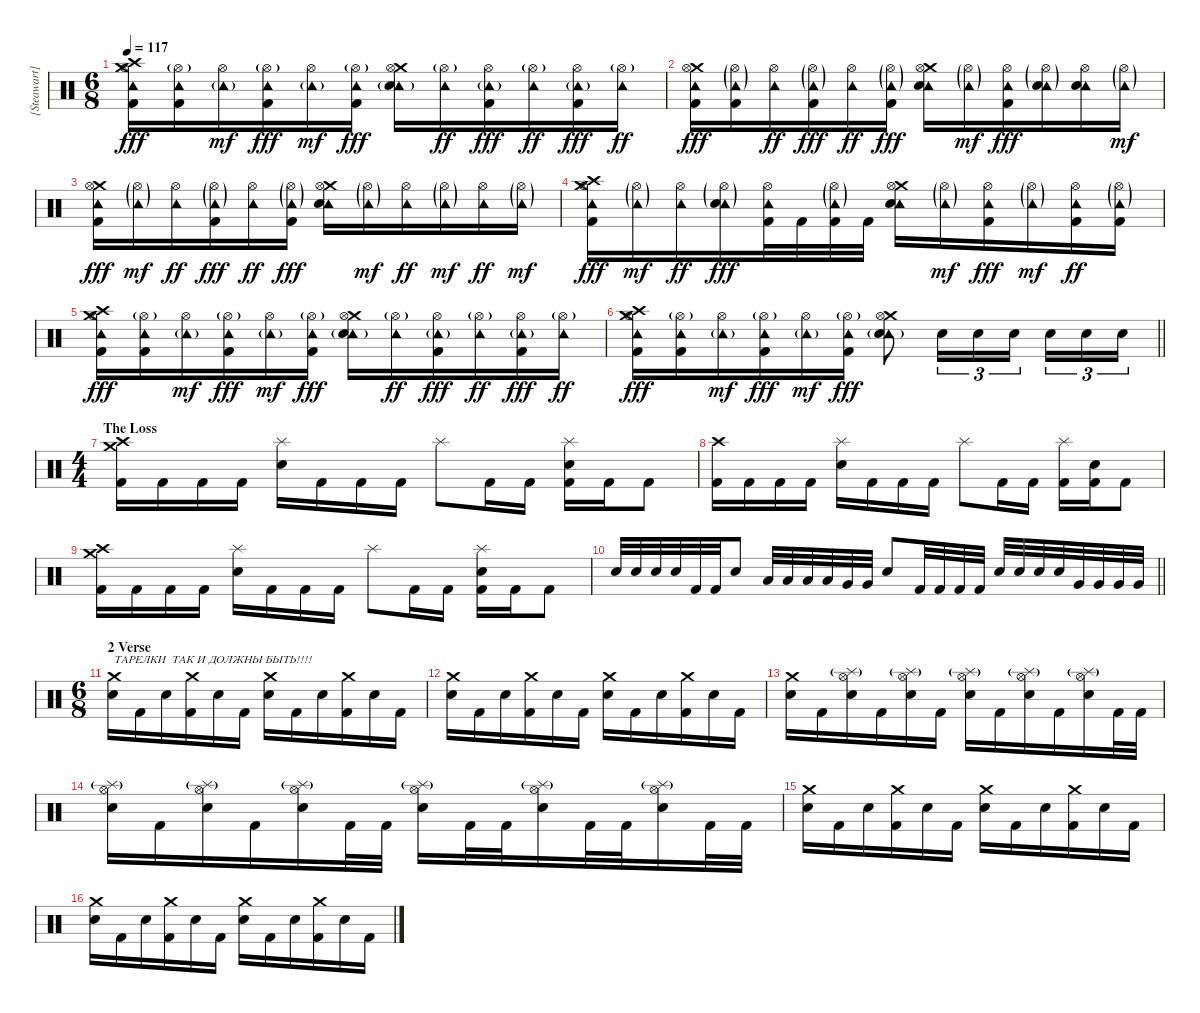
\track ("[Steawart] Drums" "[Steawart]") {instrument percussion}
\staff {score}
\articulation defaults
\ts (6 8)
\tempo 117
\clef neutral
\ks c
("Crash medium (hit)" "Hi-Hat (open)" "Crash high (hit)" "Tambourine (hit)" "Kick (hit) 2").16{dy fff} ("Hi-Hat (open)"{g} "Tambourine (hit)" "Kick (hit) 2").16 ("Hi-Hat (open)" "Tambourine (hit)"{g}).16{dy mf} ("Hi-Hat (open)"{g} "Tambourine (hit)" "Kick (hit) 2").16{dy fff} ("Hi-Hat (open)" "Tambourine (hit)"{g}).16{dy mf} ("Hi-Hat (open)"{g} "Tambourine (hit)" "Kick (hit) 2").16{dy fff} ("Crash medium (hit)" "Hi-Hat (open)" "Tambourine (hit)"{g} "Electric Snare (hit)").16 ("Hi-Hat (open)"{g} "Tambourine (hit)").16{dy ff} ("Hi-Hat (open)" "Tambourine (hit)"{g} "Kick (hit) 2").16{dy fff} ("Hi-Hat (open)"{g} "Tambourine (hit)").16{dy ff} ("Hi-Hat (open)" "Tambourine (hit)"{g} "Kick (hit) 2").16{dy fff} ("Hi-Hat (open)"{g} "Tambourine (hit)").16{dy ff} |
("Crash medium (hit)" "Hi-Hat (open)" "Tambourine (hit)" "Kick (hit) 2").16{dy fff} ("Hi-Hat (open)"{g} "Tambourine (hit)"{g} "Kick (hit) 2").16 ("Hi-Hat (open)" "Tambourine (hit)").16{dy ff} ("Hi-Hat (open)"{g} "Tambourine (hit)"{g} "Kick (hit) 2").16{dy fff} ("Hi-Hat (open)" "Tambourine (hit)").16{dy ff} ("Hi-Hat (open)"{g} "Tambourine (hit)"{g} "Kick (hit) 2").16{dy fff} ("Crash medium (hit)" "Hi-Hat (open)" "Tambourine (hit)" "Electric Snare (hit)").16 ("Hi-Hat (open)"{g} "Tambourine (hit)"{g}).16{dy mf} ("Hi-Hat (open)" "Tambourine (hit)" "Kick (hit) 2").16{dy fff} ("Hi-Hat (open)"{g} "Tambourine (hit)"{g} "Electric Snare (hit)").16 ("Hi-Hat (open)" "Tambourine (hit)" "Electric Snare (hit)").16 ("Hi-Hat (open)"{g} "Tambourine (hit)"{g}).16{dy mf} |
("Crash medium (hit)" "Hi-Hat (open)" "Tambourine (hit)" "Kick (hit) 2").16{dy fff} ("Hi-Hat (open)"{g} "Tambourine (hit)"{g}).16{dy mf} ("Hi-Hat (open)" "Tambourine (hit)").16{dy ff} ("Hi-Hat (open)"{g} "Tambourine (hit)"{g} "Kick (hit) 2").16{dy fff} ("Hi-Hat (open)" "Tambourine (hit)").16{dy ff} ("Hi-Hat (open)"{g} "Tambourine (hit)"{g} "Kick (hit) 2").16{dy fff} ("Crash medium (hit)" "Hi-Hat (open)" "Tambourine (hit)" "Electric Snare (hit)").16 ("Hi-Hat (open)"{g} "Tambourine (hit)"{g}).16{dy mf} ("Hi-Hat (open)" "Tambourine (hit)").16{dy ff} ("Hi-Hat (open)"{g} "Tambourine (hit)"{g}).16{dy mf} ("Hi-Hat (open)" "Tambourine (hit)").16{dy ff} ("Hi-Hat (open)"{g} "Tambourine (hit)"{g}).16{dy mf} |
("Crash medium (hit)" "Hi-Hat (open)" "Crash high (hit)" "Tambourine (hit)" "Kick (hit) 2").16{dy fff} ("Hi-Hat (open)"{g} "Tambourine (hit)"{g}).16{dy mf} ("Hi-Hat (open)" "Tambourine (hit)").16{dy ff} ("Hi-Hat (open)"{g} "Tambourine (hit)"{g} "Electric Snare (hit)").16{dy fff} ("Hi-Hat (open)" "Tambourine (hit)" "Kick (hit) 2").32 "Kick (hit) 2".32 ("Hi-Hat (open)"{g} "Tambourine (hit)"{g} "Kick (hit) 2").32 "Kick (hit) 2".32 ("Crash medium (hit)" "Hi-Hat (open)" "Tambourine (hit)" "Electric Snare (hit)").16 ("Hi-Hat (open)"{g} "Tambourine (hit)"{g}).16{dy mf} ("Hi-Hat (open)" "Tambourine (hit)" "Kick (hit) 2").16{dy fff} ("Hi-Hat (open)"{g} "Tambourine (hit)"{g}).16{dy mf} ("Hi-Hat (open)" "Tambourine (hit)" "Kick (hit) 2").16{dy ff} ("Hi-Hat (open)"{g} "Tambourine (hit)"{g} "Kick (hit) 2").16 |
("Crash medium (hit)" "Hi-Hat (open)" "Crash high (hit)" "Tambourine (hit)" "Kick (hit) 2").16{dy fff} ("Hi-Hat (open)"{g} "Tambourine (hit)" "Kick (hit) 2").16 ("Hi-Hat (open)" "Tambourine (hit)"{g}).16{dy mf} ("Hi-Hat (open)"{g} "Tambourine (hit)" "Kick (hit) 2").16{dy fff} ("Hi-Hat (open)" "Tambourine (hit)"{g}).16{dy mf} ("Hi-Hat (open)"{g} "Tambourine (hit)" "Kick (hit) 2").16{dy fff} ("Crash medium (hit)" "Hi-Hat (open)" "Tambourine (hit)"{g} "Electric Snare (hit)").16 ("Hi-Hat (open)"{g} "Tambourine (hit)").16{dy ff} ("Hi-Hat (open)" "Tambourine (hit)"{g} "Kick (hit) 2").16{dy fff} ("Hi-Hat (open)"{g} "Tambourine (hit)").16{dy ff} ("Hi-Hat (open)" "Tambourine (hit)"{g} "Kick (hit) 2").16{dy fff} ("Hi-Hat (open)"{g} "Tambourine (hit)").16{dy ff} |
\barLineRight lightlight
("Crash medium (hit)" "Hi-Hat (open)" "Crash high (hit)" "Tambourine (hit)" "Kick (hit) 2").16{dy fff} ("Hi-Hat (open)"{g} "Tambourine (hit)" "Kick (hit) 2").16 ("Hi-Hat (open)" "Tambourine (hit)"{g}).16{dy mf} ("Hi-Hat (open)"{g} "Tambourine (hit)" "Kick (hit) 2").16{dy fff} ("Hi-Hat (open)" "Tambourine (hit)"{g}).16{dy mf} ("Hi-Hat (open)"{g} "Tambourine (hit)" "Kick (hit) 2").16{dy fff} ("Crash medium (hit)" "Hi-Hat (open)" "Tambourine (hit)"{g} "Electric Snare (hit)").8 "Electric Snare (hit)".16{tu (3 2)} "Electric Snare (hit)".16{tu (3 2)} "Electric Snare (hit)".16{tu (3 2) beam splitsecondary} "Electric Snare (hit)".16{tu (3 2)} "Electric Snare (hit)".16{tu (3 2)} "Electric Snare (hit)".16{tu (3 2)} |
\ts (4 4)
\section ("" "The Loss")
("Crash medium (hit)" "Crash high (hit)" "Kick (hit) 2").16 "Kick (hit) 2".16 "Kick (hit) 2".16 "Kick (hit) 2".16 ("Splash (hit)" "Electric Snare (hit)").16 "Kick (hit) 2".16 "Kick (hit) 2".16 "Kick (hit) 2".16 "Splash (hit)".8 "Kick (hit) 2".16 "Kick (hit) 2".16 ("Splash (hit)" "Electric Snare (hit)" "Kick (hit) 2").16 "Kick (hit) 2".16 "Kick (hit) 2".8 |
("Crash high (hit)" "Kick (hit) 2").16 "Kick (hit) 2".16 "Kick (hit) 2".16 "Kick (hit) 2".16 ("Splash (hit)" "Electric Snare (hit)").16 "Kick (hit) 2".16 "Kick (hit) 2".16 "Kick (hit) 2".16 "Splash (hit)".8 "Kick (hit) 2".16 "Kick (hit) 2".16 ("Splash (hit)" "Kick (hit) 2").16 ("Electric Snare (hit)" "Kick (hit) 2").16 "Kick (hit) 2".8 |
("Crash medium (hit)" "Crash high (hit)" "Kick (hit) 2").16 "Kick (hit) 2".16 "Kick (hit) 2".16 "Kick (hit) 2".16 ("Splash (hit)" "Electric Snare (hit)").16 "Kick (hit) 2".16 "Kick (hit) 2".16 "Kick (hit) 2".16 "Splash (hit)".8 "Kick (hit) 2".16 "Kick (hit) 2".16 ("Splash (hit)" "Electric Snare (hit)" "Kick (hit) 2").16 "Kick (hit) 2".16 "Kick (hit) 2".8 |
\barLineRight lightlight "Electric Snare (hit)".32 "Electric Snare (hit)".32 "Electric Snare (hit)".32 "Electric Snare (hit)".32 "Kick (hit) 2".32 "Kick (hit) 2".32 "Electric Snare (hit)".8 "Low Tom (hit)".32 "Low Tom (hit)".32 "Low Tom (hit)".32 "Low Tom (hit)".32 "Very Low Tom (hit)".32 "Very Low Tom (hit)".32 "Electric Snare (hit)".8 "Kick (hit) 2".32 "Kick (hit) 2".32 "Kick (hit) 2".32 "Kick (hit) 2".32 "Electric Snare (hit)".32 "Electric Snare (hit)".32 "Electric Snare (hit)".32 "Electric Snare (hit)".32 "Very Low Tom (hit)".32 "Very Low Tom (hit)".32 "Very Low Tom (hit)".32 "Very Low Tom (hit)".32
|
\ts (6 8)
\section ("" "2 Verse ")
("Crash medium (hit)" "Electric Snare (hit)").16{txt "ТАРЕЛКИ  ТАК И ДОЛЖНЫ БЫТЬ!!!!"} "Kick (hit) 2".16 "Electric Snare (hit)".16 ("Crash medium (hit)" "Kick (hit) 2").16 "Electric Snare (hit)".16 "Kick (hit) 2".16 ("Crash medium (hit)" "Electric Snare (hit)").16 "Kick (hit) 2".16 "Electric Snare (hit)".16 ("Crash medium (hit)" "Kick (hit) 2").16 "Electric Snare (hit)".16 "Kick (hit) 2".16 |
("Crash medium (hit)" "Electric Snare (hit)").16 "Kick (hit) 2".16 "Electric Snare (hit)".16 ("Crash medium (hit)" "Kick (hit) 2").16 "Electric Snare (hit)".16 "Kick (hit) 2".16 ("Crash medium (hit)" "Electric Snare (hit)").16 "Kick (hit) 2".16 "Electric Snare (hit)".16 ("Crash medium (hit)" "Kick (hit) 2").16 "Electric Snare (hit)".16 "Kick (hit) 2".16 |
("Crash medium (hit)" "Electric Snare (hit)").16 "Kick (hit) 2".16 ("Hi-Hat (open)" "Splash (hit)"{g} "Electric Snare (hit)").16 "Kick (hit) 2".16 ("Hi-Hat (open)" "Splash (hit)"{g} "Electric Snare (hit)").16 "Kick (hit) 2".16 ("Hi-Hat (open)" "Splash (hit)"{g} "Electric Snare (hit)").16 "Kick (hit) 2".16 ("Hi-Hat (open)" "Splash (hit)"{g} "Electric Snare (hit)").16 "Kick (hit) 2".16 ("Hi-Hat (open)" "Splash (hit)"{g} "Electric Snare (hit)").16 "Kick (hit) 2".32 "Kick (hit) 2".32 |
("Hi-Hat (open)" "Splash (hit)"{g} "Electric Snare (hit)").16 "Kick (hit) 2".16 ("Hi-Hat (open)" "Splash (hit)"{g} "Electric Snare (hit)").16 "Kick (hit) 2".16 ("Hi-Hat (open)" "Splash (hit)"{g} "Electric Snare (hit)").16 "Kick (hit) 2".32 "Kick (hit) 2".32 ("Hi-Hat (open)" "Splash (hit)"{g} "Electric Snare (hit)").16 "Kick (hit) 2".32 "Kick (hit) 2".32 ("Hi-Hat (open)" "Splash (hit)"{g} "Electric Snare (hit)").16 "Kick (hit) 2".32 "Kick (hit) 2".32 ("Hi-Hat (open)" "Splash (hit)"{g} "Electric Snare (hit)").16 "Kick (hit) 2".32 "Kick (hit) 2".32 |
("Crash medium (hit)" "Electric Snare (hit)").16 "Kick (hit) 2".16 "Electric Snare (hit)".16 ("Crash medium (hit)" "Kick (hit) 2").16 "Electric Snare (hit)".16 "Kick (hit) 2".16 ("Crash medium (hit)" "Electric Snare (hit)").16 "Kick (hit) 2".16 "Electric Snare (hit)".16 ("Crash medium (hit)" "Kick (hit) 2").16 "Electric Snare (hit)".16 "Kick (hit) 2".16 |
("Crash medium (hit)" "Electric Snare (hit)").16 "Kick (hit) 2".16 "Electric Snare (hit)".16 ("Crash medium (hit)" "Kick (hit) 2").16 "Electric Snare (hit)".16 "Kick (hit) 2".16 ("Crash medium (hit)" "Electric Snare (hit)").16 "Kick (hit) 2".16 "Electric Snare (hit)".16 ("Crash medium (hit)" "Kick (hit) 2").16 "Electric Snare (hit)".16 "Kick (hit) 2".16
